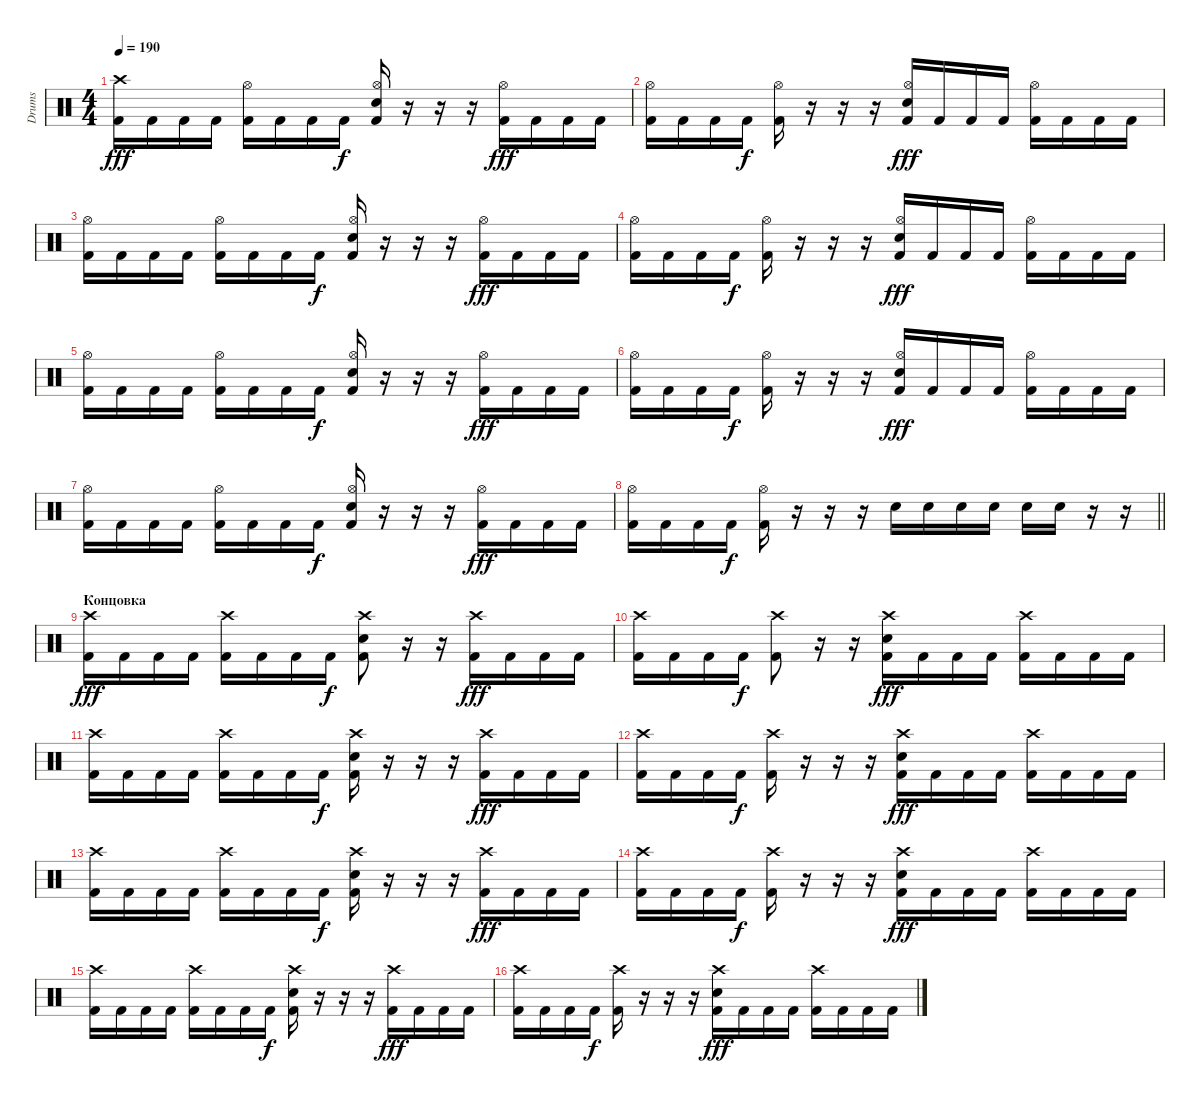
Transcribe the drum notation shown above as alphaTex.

\track ("Drums" "Drums") {instrument percussion}
\staff {score}
\articulation defaults
\ts (4 4)
\tempo 190
\clef neutral
\ks c
("Crash high (hit)" "Kick (hit) 2").16{dy fff} "Kick (hit) 2".16 "Kick (hit) 2".16 "Kick (hit) 2".16 ("Hi-Hat (open)" "Kick (hit) 2").16 "Kick (hit) 2".16 "Kick (hit) 2".16 "Kick (hit) 2".16{dy f} ("Hi-Hat (open)" "Electric Snare (hit)" "Kick (hit) 2").16 r.16 r.16 r.16 ("Hi-Hat (open)" "Kick (hit) 2").16{dy fff} "Kick (hit) 2".16 "Kick (hit) 2".16 "Kick (hit) 2".16 |
("Hi-Hat (open)" "Kick (hit) 2").16 "Kick (hit) 2".16 "Kick (hit) 2".16 "Kick (hit) 2".16{dy f} ("Hi-Hat (open)" "Kick (hit) 2").16 r.16 r.16 r.16 ("Hi-Hat (open)" "Electric Snare (hit)" "Kick (hit) 2").16{dy fff} "Kick (hit) 2".16 "Kick (hit) 2".16 "Kick (hit) 2".16 ("Hi-Hat (open)" "Kick (hit) 2").16 "Kick (hit) 2".16 "Kick (hit) 2".16 "Kick (hit) 2".16 |
("Hi-Hat (open)" "Kick (hit) 2").16 "Kick (hit) 2".16 "Kick (hit) 2".16 "Kick (hit) 2".16 ("Hi-Hat (open)" "Kick (hit) 2").16 "Kick (hit) 2".16 "Kick (hit) 2".16 "Kick (hit) 2".16{dy f} ("Hi-Hat (open)" "Electric Snare (hit)" "Kick (hit) 2").16 r.16 r.16 r.16 ("Hi-Hat (open)" "Kick (hit) 2").16{dy fff} "Kick (hit) 2".16 "Kick (hit) 2".16 "Kick (hit) 2".16 |
("Hi-Hat (open)" "Kick (hit) 2").16 "Kick (hit) 2".16 "Kick (hit) 2".16 "Kick (hit) 2".16{dy f} ("Hi-Hat (open)" "Kick (hit) 2").16 r.16 r.16 r.16 ("Hi-Hat (open)" "Electric Snare (hit)" "Kick (hit) 2").16{dy fff} "Kick (hit) 2".16 "Kick (hit) 2".16 "Kick (hit) 2".16 ("Hi-Hat (open)" "Kick (hit) 2").16 "Kick (hit) 2".16 "Kick (hit) 2".16 "Kick (hit) 2".16 |
("Hi-Hat (open)" "Kick (hit) 2").16 "Kick (hit) 2".16 "Kick (hit) 2".16 "Kick (hit) 2".16 ("Hi-Hat (open)" "Kick (hit) 2").16 "Kick (hit) 2".16 "Kick (hit) 2".16 "Kick (hit) 2".16{dy f} ("Hi-Hat (open)" "Electric Snare (hit)" "Kick (hit) 2").16 r.16 r.16 r.16 ("Hi-Hat (open)" "Kick (hit) 2").16{dy fff} "Kick (hit) 2".16 "Kick (hit) 2".16 "Kick (hit) 2".16 |
("Hi-Hat (open)" "Kick (hit) 2").16 "Kick (hit) 2".16 "Kick (hit) 2".16 "Kick (hit) 2".16{dy f} ("Hi-Hat (open)" "Kick (hit) 2").16 r.16 r.16 r.16 ("Hi-Hat (open)" "Electric Snare (hit)" "Kick (hit) 2").16{dy fff} "Kick (hit) 2".16 "Kick (hit) 2".16 "Kick (hit) 2".16 ("Hi-Hat (open)" "Kick (hit) 2").16 "Kick (hit) 2".16 "Kick (hit) 2".16 "Kick (hit) 2".16 |
("Hi-Hat (open)" "Kick (hit) 2").16 "Kick (hit) 2".16 "Kick (hit) 2".16 "Kick (hit) 2".16 ("Hi-Hat (open)" "Kick (hit) 2").16 "Kick (hit) 2".16 "Kick (hit) 2".16 "Kick (hit) 2".16{dy f} ("Hi-Hat (open)" "Electric Snare (hit)" "Kick (hit) 2").16 r.16 r.16 r.16 ("Hi-Hat (open)" "Kick (hit) 2").16{dy fff} "Kick (hit) 2".16 "Kick (hit) 2".16 "Kick (hit) 2".16 |
\barLineRight lightlight
("Hi-Hat (open)" "Kick (hit) 2").16 "Kick (hit) 2".16 "Kick (hit) 2".16 "Kick (hit) 2".16{dy f} ("Hi-Hat (open)" "Kick (hit) 2").16 r.16 r.16 r.16 "Electric Snare (hit)".16 "Electric Snare (hit)".16 "Electric Snare (hit)".16 "Electric Snare (hit)".16 "Electric Snare (hit)".16 "Electric Snare (hit)".16 r.16 r.16 |
\section ("" "Концовка")
("Crash high (hit)" "Kick (hit) 2").16{dy fff} "Kick (hit) 2".16 "Kick (hit) 2".16 "Kick (hit) 2".16 ("Crash high (hit)" "Kick (hit) 2").16 "Kick (hit) 2".16 "Kick (hit) 2".16 "Kick (hit) 2".16{dy f} ("Crash high (hit)" "Electric Snare (hit)" "Kick (hit) 2").8 r.16 r.16 ("Crash high (hit)" "Kick (hit) 2").16{dy fff} "Kick (hit) 2".16 "Kick (hit) 2".16 "Kick (hit) 2".16 |
("Crash high (hit)" "Kick (hit) 2").16 "Kick (hit) 2".16 "Kick (hit) 2".16 "Kick (hit) 2".16{dy f} ("Crash high (hit)" "Kick (hit) 2").8 r.16 r.16 ("Crash high (hit)" "Electric Snare (hit)" "Kick (hit) 2").16{dy fff} "Kick (hit) 2".16 "Kick (hit) 2".16 "Kick (hit) 2".16 ("Crash high (hit)" "Kick (hit) 2").16 "Kick (hit) 2".16 "Kick (hit) 2".16 "Kick (hit) 2".16 |
("Crash high (hit)" "Kick (hit) 2").16 "Kick (hit) 2".16 "Kick (hit) 2".16 "Kick (hit) 2".16 ("Crash high (hit)" "Kick (hit) 2").16 "Kick (hit) 2".16 "Kick (hit) 2".16 "Kick (hit) 2".16{dy f} ("Crash high (hit)" "Electric Snare (hit)" "Kick (hit) 2").16 r.16 r.16 r.16 ("Crash high (hit)" "Kick (hit) 2").16{dy fff} "Kick (hit) 2".16 "Kick (hit) 2".16 "Kick (hit) 2".16 |
("Crash high (hit)" "Kick (hit) 2").16 "Kick (hit) 2".16 "Kick (hit) 2".16 "Kick (hit) 2".16{dy f} ("Crash high (hit)" "Kick (hit) 2").16 r.16 r.16 r.16 ("Crash high (hit)" "Electric Snare (hit)" "Kick (hit) 2").16{dy fff} "Kick (hit) 2".16 "Kick (hit) 2".16 "Kick (hit) 2".16 ("Crash high (hit)" "Kick (hit) 2").16 "Kick (hit) 2".16 "Kick (hit) 2".16 "Kick (hit) 2".16 |
("Crash high (hit)" "Kick (hit) 2").16 "Kick (hit) 2".16 "Kick (hit) 2".16 "Kick (hit) 2".16 ("Crash high (hit)" "Kick (hit) 2").16 "Kick (hit) 2".16 "Kick (hit) 2".16 "Kick (hit) 2".16{dy f} ("Crash high (hit)" "Electric Snare (hit)" "Kick (hit) 2").16 r.16 r.16 r.16 ("Crash high (hit)" "Kick (hit) 2").16{dy fff} "Kick (hit) 2".16 "Kick (hit) 2".16 "Kick (hit) 2".16 |
("Crash high (hit)" "Kick (hit) 2").16 "Kick (hit) 2".16 "Kick (hit) 2".16 "Kick (hit) 2".16{dy f} ("Crash high (hit)" "Kick (hit) 2").16 r.16 r.16 r.16 ("Crash high (hit)" "Electric Snare (hit)" "Kick (hit) 2").16{dy fff} "Kick (hit) 2".16 "Kick (hit) 2".16 "Kick (hit) 2".16 ("Crash high (hit)" "Kick (hit) 2").16 "Kick (hit) 2".16 "Kick (hit) 2".16 "Kick (hit) 2".16 |
("Crash high (hit)" "Kick (hit) 2").16 "Kick (hit) 2".16 "Kick (hit) 2".16 "Kick (hit) 2".16 ("Crash high (hit)" "Kick (hit) 2").16 "Kick (hit) 2".16 "Kick (hit) 2".16 "Kick (hit) 2".16{dy f} ("Crash high (hit)" "Electric Snare (hit)" "Kick (hit) 2").16 r.16 r.16 r.16 ("Crash high (hit)" "Kick (hit) 2").16{dy fff} "Kick (hit) 2".16 "Kick (hit) 2".16 "Kick (hit) 2".16 |
("Crash high (hit)" "Kick (hit) 2").16 "Kick (hit) 2".16 "Kick (hit) 2".16 "Kick (hit) 2".16{dy f} ("Crash high (hit)" "Kick (hit) 2").16 r.16 r.16 r.16 ("Crash high (hit)" "Electric Snare (hit)" "Kick (hit) 2").16{dy fff} "Kick (hit) 2".16 "Kick (hit) 2".16 "Kick (hit) 2".16 ("Crash high (hit)" "Kick (hit) 2").16 "Kick (hit) 2".16 "Kick (hit) 2".16 "Kick (hit) 2".16
